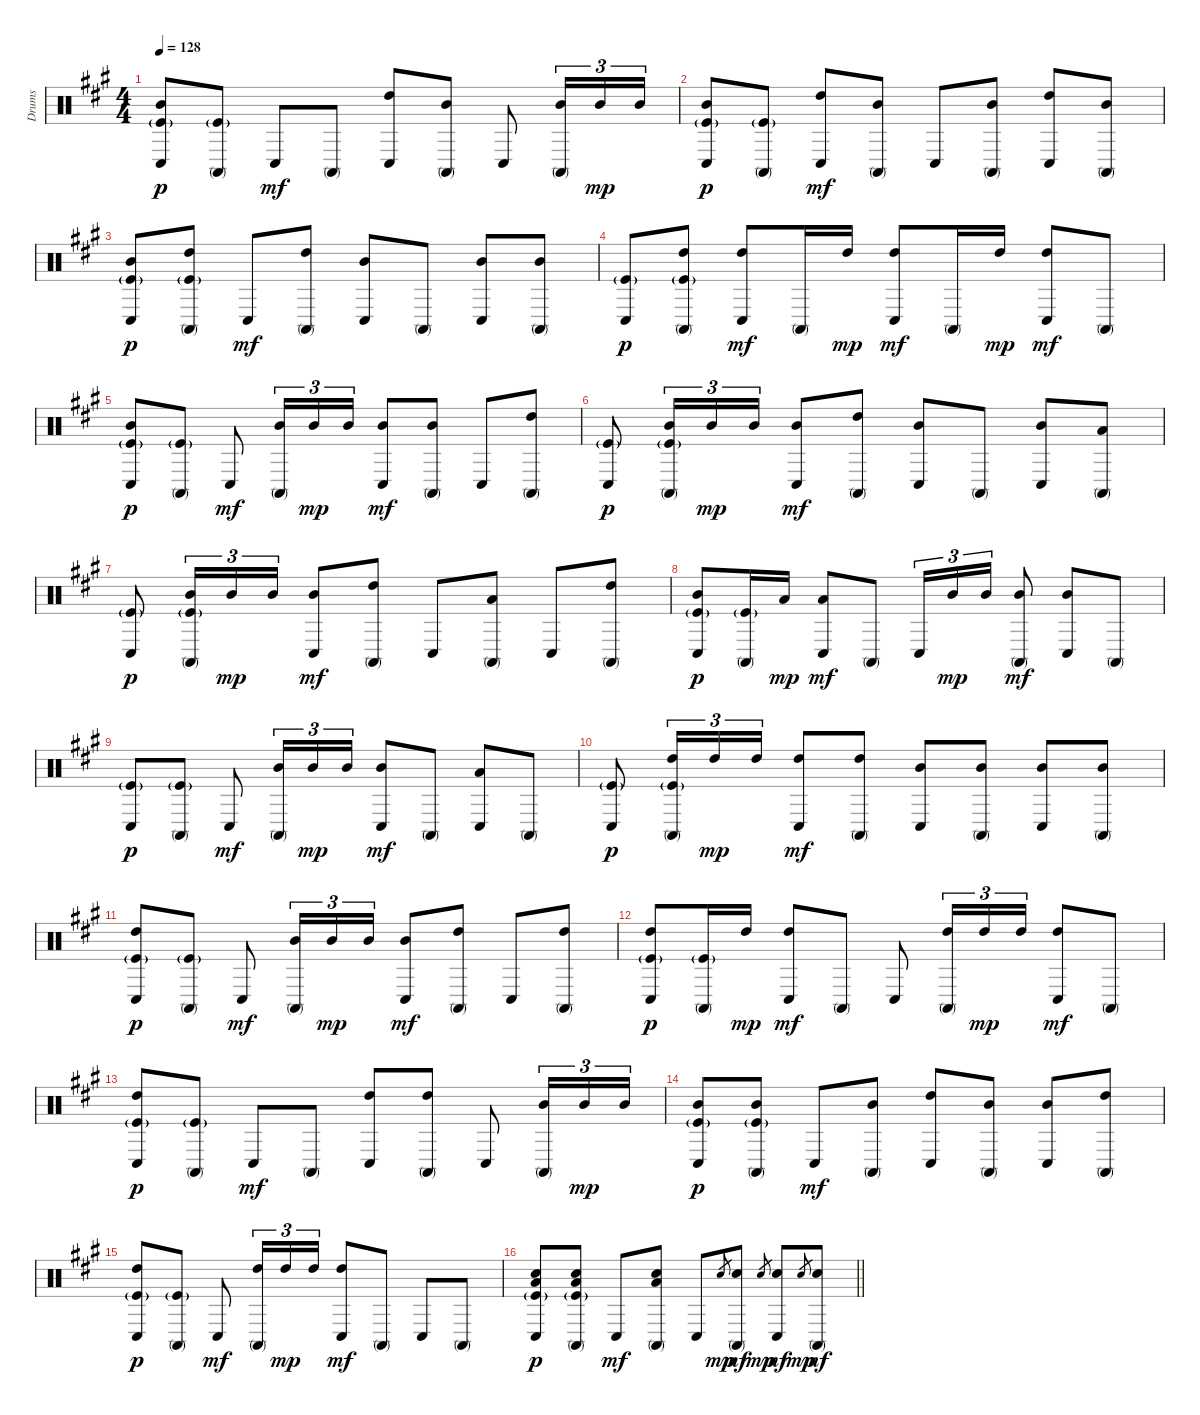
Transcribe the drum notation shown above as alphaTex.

\track ("Drums" "Drums") {instrument percussion}
\staff {score}
\articulation defaults
\ts (4 4)
\tempo 128
\clef neutral
\ks f#minor
("Mid Tom (hit)" "Conga low (hit)" "Kick (hit)"{g}).8{dy p} ("Conga high (mute)" "Kick (hit)"{g}).8 "Conga low (hit)".8{dy mf} "Conga high (mute)".8 ("High Tom (hit)" "Conga low (hit)").8 ("Mid Tom (hit)" "Conga high (mute)").8 "Conga low (hit)".8 ("Mid Tom (hit)" "Conga high (mute)").16{tu (3 2)} "Mid Tom (hit)".16{tu (3 2) dy mp} "Mid Tom (hit)".16{tu (3 2)} |
("Mid Tom (hit)" "Conga low (hit)" "Kick (hit)"{g}).8{dy p} ("Conga high (mute)" "Kick (hit)"{g}).8 ("High Tom (hit)" "Conga low (hit)").8{dy mf} ("Mid Tom (hit)" "Conga high (mute)").8 "Conga low (hit)".8 ("Mid Tom (hit)" "Conga high (mute)").8 ("High Tom (hit)" "Conga low (hit)").8 ("Mid Tom (hit)" "Conga high (mute)").8 |
("Mid Tom (hit)" "Conga low (hit)" "Kick (hit)"{g}).8{dy p} ("High Tom (hit)" "Conga high (mute)" "Kick (hit)"{g}).8 "Conga low (hit)".8{dy mf} ("High Tom (hit)" "Conga high (mute)").8 ("Mid Tom (hit)" "Conga low (hit)").8 "Conga high (mute)".8 ("Mid Tom (hit)" "Conga low (hit)").8 ("Mid Tom (hit)" "Conga high (mute)").8 |
("Conga low (hit)" "Kick (hit)"{g}).8{dy p} ("High Tom (hit)" "Conga high (mute)" "Kick (hit)"{g}).8 ("High Tom (hit)" "Conga low (hit)").8{dy mf} "Conga high (mute)".16 "High Tom (hit)".16{dy mp} ("High Tom (hit)" "Conga low (hit)").8{dy mf} "Conga high (mute)".16 "High Tom (hit)".16{dy mp} ("High Tom (hit)" "Conga low (hit)").8{dy mf} "Conga high (mute)".8 |
("Mid Tom (hit)" "Conga low (hit)" "Kick (hit)"{g}).8{dy p} ("Conga high (mute)" "Kick (hit)"{g}).8 "Conga low (hit)".8{dy mf} ("Mid Tom (hit)" "Conga high (mute)").16{tu (3 2)} "Mid Tom (hit)".16{tu (3 2) dy mp} "Mid Tom (hit)".16{tu (3 2)} ("Mid Tom (hit)" "Conga low (hit)").8{dy mf} ("Mid Tom (hit)" "Conga high (mute)").8 "Conga low (hit)".8 ("High Tom (hit)" "Conga high (mute)").8 |
("Conga low (hit)" "Kick (hit)"{g}).8{dy p} ("Mid Tom (hit)" "Conga high (mute)" "Kick (hit)"{g}).16{tu (3 2)} "Mid Tom (hit)".16{tu (3 2) dy mp} "Mid Tom (hit)".16{tu (3 2)} ("Mid Tom (hit)" "Conga low (hit)").8{dy mf} ("High Tom (hit)" "Conga high (mute)").8 ("Mid Tom (hit)" "Conga low (hit)").8 "Conga high (mute)".8 ("Mid Tom (hit)" "Conga low (hit)").8 ("Low Tom (hit)" "Conga high (mute)").8 |
("Conga low (hit)" "Kick (hit)"{g}).8{dy p} ("Mid Tom (hit)" "Conga high (mute)" "Kick (hit)"{g}).16{tu (3 2)} "Mid Tom (hit)".16{tu (3 2) dy mp} "Mid Tom (hit)".16{tu (3 2)} ("Mid Tom (hit)" "Conga low (hit)").8{dy mf} ("High Tom (hit)" "Conga high (mute)").8 "Conga low (hit)".8 ("Low Tom (hit)" "Conga high (mute)").8 "Conga low (hit)".8 ("High Tom (hit)" "Conga high (mute)").8 |
("Mid Tom (hit)" "Conga low (hit)" "Kick (hit)"{g}).8{dy p} ("Conga high (mute)" "Kick (hit)"{g}).16 "Low Tom (hit)".16{dy mp} ("Low Tom (hit)" "Conga low (hit)").8{dy mf} "Conga high (mute)".8 "Conga low (hit)".16{tu (3 2)} "Mid Tom (hit)".16{tu (3 2) dy mp} "Mid Tom (hit)".16{tu (3 2)} ("Mid Tom (hit)" "Conga high (mute)").8{dy mf} ("Mid Tom (hit)" "Conga low (hit)").8 "Conga high (mute)".8 |
("Conga low (hit)" "Kick (hit)"{g}).8{dy p} ("Conga high (mute)" "Kick (hit)"{g}).8 "Conga low (hit)".8{dy mf} ("Mid Tom (hit)" "Conga high (mute)").16{tu (3 2)} "Mid Tom (hit)".16{tu (3 2) dy mp} "Mid Tom (hit)".16{tu (3 2)} ("Mid Tom (hit)" "Conga low (hit)").8{dy mf} "Conga high (mute)".8 ("Low Tom (hit)" "Conga low (hit)").8 "Conga high (mute)".8 |
("Conga low (hit)" "Kick (hit)"{g}).8{dy p} ("High Tom (hit)" "Conga high (mute)" "Kick (hit)"{g}).16{tu (3 2)} "High Tom (hit)".16{tu (3 2) dy mp} "High Tom (hit)".16{tu (3 2)} ("High Tom (hit)" "Conga low (hit)").8{dy mf} ("High Tom (hit)" "Conga high (mute)").8 ("Mid Tom (hit)" "Conga low (hit)").8 ("Mid Tom (hit)" "Conga high (mute)").8 ("Mid Tom (hit)" "Conga low (hit)").8 ("Mid Tom (hit)" "Conga high (mute)").8 |
("High Tom (hit)" "Conga low (hit)" "Kick (hit)"{g}).8{dy p} ("Conga high (mute)" "Kick (hit)"{g}).8 "Conga low (hit)".8{dy mf} ("Mid Tom (hit)" "Conga high (mute)").16{tu (3 2)} "Mid Tom (hit)".16{tu (3 2) dy mp} "Mid Tom (hit)".16{tu (3 2)} ("Mid Tom (hit)" "Conga low (hit)").8{dy mf} ("High Tom (hit)" "Conga high (mute)").8 "Conga low (hit)".8 ("High Tom (hit)" "Conga high (mute)").8 |
("High Tom (hit)" "Conga low (hit)" "Kick (hit)"{g}).8{dy p} ("Conga high (mute)" "Kick (hit)"{g}).16 "High Tom (hit)".16{dy mp} ("High Tom (hit)" "Conga low (hit)").8{dy mf} "Conga high (mute)".8 "Conga low (hit)".8 ("High Tom (hit)" "Conga high (mute)").16{tu (3 2)} "High Tom (hit)".16{tu (3 2) dy mp} "High Tom (hit)".16{tu (3 2)} ("High Tom (hit)" "Conga low (hit)").8{dy mf} "Conga high (mute)".8 |
("High Tom (hit)" "Conga low (hit)" "Kick (hit)"{g}).8{dy p} ("Conga high (mute)" "Kick (hit)"{g}).8 "Conga low (hit)".8{dy mf} "Conga high (mute)".8 ("High Tom (hit)" "Conga low (hit)").8 ("High Tom (hit)" "Conga high (mute)").8 "Conga low (hit)".8 ("Mid Tom (hit)" "Conga high (mute)").16{tu (3 2)} "Mid Tom (hit)".16{tu (3 2) dy mp} "Mid Tom (hit)".16{tu (3 2)} |
("Mid Tom (hit)" "Conga low (hit)" "Kick (hit)"{g}).8{dy p} ("Mid Tom (hit)" "Conga high (mute)" "Kick (hit)"{g}).8 "Conga low (hit)".8{dy mf} ("Mid Tom (hit)" "Conga high (mute)").8 ("High Tom (hit)" "Conga low (hit)").8 ("Mid Tom (hit)" "Conga high (mute)").8 ("Mid Tom (hit)" "Conga low (hit)").8 ("High Tom (hit)" "Conga high (mute)").8 |
("High Tom (hit)" "Conga low (hit)" "Kick (hit)"{g}).8{dy p} ("Conga high (mute)" "Kick (hit)"{g}).8 "Conga low (hit)".8{dy mf} ("High Tom (hit)" "Conga high (mute)").16{tu (3 2)} "High Tom (hit)".16{tu (3 2) dy mp} "High Tom (hit)".16{tu (3 2)} ("High Tom (hit)" "Conga low (hit)").8{dy mf} "Conga high (mute)".8 "Conga low (hit)".8 "Conga high (mute)".8 |
\barLineRight lightlight
("Low Tom (hit)" "Electric Snare (hit)" "Conga low (hit)" "Kick (hit)"{g}).8{dy p} ("Low Tom (hit)" "Electric Snare (hit)" "Conga high (mute)" "Kick (hit)"{g}).8 "Conga low (hit)".8{dy mf} ("Low Tom (hit)" "Electric Snare (hit)" "Conga high (mute)").8 "Conga low (hit)".8 "Electric Snare (hit)"{h}.8{gr dy mp} ("Electric Snare (hit)" "Conga high (mute)").8{dy mf} "Electric Snare (hit)"{h}.8{gr dy mp} ("Electric Snare (hit)" "Conga low (hit)").8{dy mf} "Electric Snare (hit)"{h}.8{gr dy mp} ("Electric Snare (hit)" "Conga high (mute)").8{dy mf}
